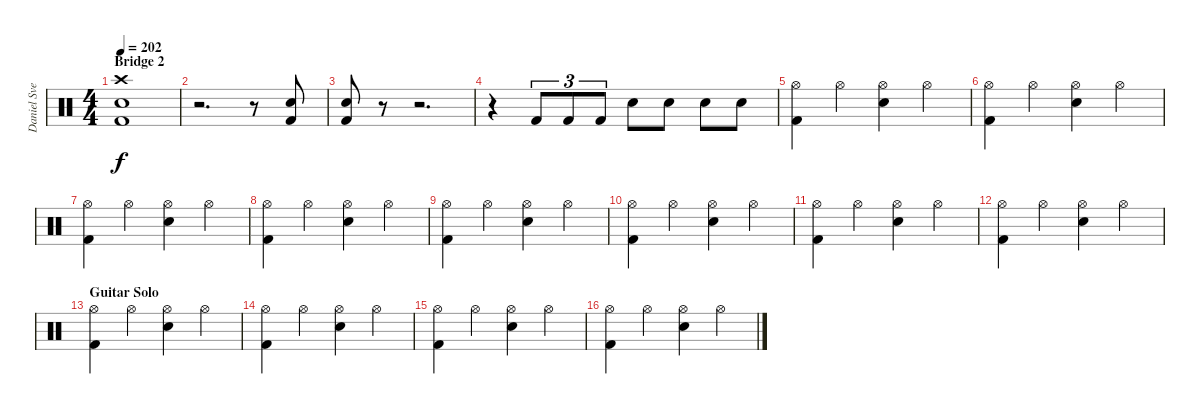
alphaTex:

\track ("Daniel Svensson" "Daniel Sve") {instrument percussion}
\staff {score}
\articulation defaults
\ts (4 4)
\section ("" "Bridge 2")
\tempo 202
\clef neutral
\ks c
("Crash high (hit)" "Electric Snare (hit)" "Kick (hit) 2").1{dy f} |
r.2{d} r.8 ("Electric Snare (hit)" "Kick (hit) 2").8 |
("Electric Snare (hit)" "Kick (hit) 2").8 r.8 r.2{d} |
r.4 "Kick (hit) 2".8{tu (3 2)} "Kick (hit) 2".8{tu (3 2)} "Kick (hit) 2".8{tu (3 2)} "Electric Snare (hit)".8 "Electric Snare (hit)".8 "Electric Snare (hit)".8 "Electric Snare (hit)".8 |
("Hi-Hat (open)" "Kick (hit) 2").4 "Hi-Hat (open)".4 ("Hi-Hat (open)" "Electric Snare (hit)").4 "Hi-Hat (open)".4 |
("Hi-Hat (open)" "Kick (hit) 2").4 "Hi-Hat (open)".4 ("Hi-Hat (open)" "Electric Snare (hit)").4 "Hi-Hat (open)".4 |
("Hi-Hat (open)" "Kick (hit) 2").4 "Hi-Hat (open)".4 ("Hi-Hat (open)" "Electric Snare (hit)").4 "Hi-Hat (open)".4 |
("Hi-Hat (open)" "Kick (hit) 2").4 "Hi-Hat (open)".4 ("Hi-Hat (open)" "Electric Snare (hit)").4 "Hi-Hat (open)".4 |
("Hi-Hat (open)" "Kick (hit) 2").4 "Hi-Hat (open)".4 ("Hi-Hat (open)" "Electric Snare (hit)").4 "Hi-Hat (open)".4 |
("Hi-Hat (open)" "Kick (hit) 2").4 "Hi-Hat (open)".4 ("Hi-Hat (open)" "Electric Snare (hit)").4 "Hi-Hat (open)".4 |
("Hi-Hat (open)" "Kick (hit) 2").4 "Hi-Hat (open)".4 ("Hi-Hat (open)" "Electric Snare (hit)").4 "Hi-Hat (open)".4 |
("Hi-Hat (open)" "Kick (hit) 2").4 "Hi-Hat (open)".4 ("Hi-Hat (open)" "Electric Snare (hit)").4 "Hi-Hat (open)".4 |
\section ("" "Guitar Solo")
("Hi-Hat (open)" "Kick (hit) 2").4 "Hi-Hat (open)".4 ("Hi-Hat (open)" "Electric Snare (hit)").4 "Hi-Hat (open)".4 |
("Hi-Hat (open)" "Kick (hit) 2").4 "Hi-Hat (open)".4 ("Hi-Hat (open)" "Electric Snare (hit)").4 "Hi-Hat (open)".4 |
("Hi-Hat (open)" "Kick (hit) 2").4 "Hi-Hat (open)".4 ("Hi-Hat (open)" "Electric Snare (hit)").4 "Hi-Hat (open)".4 |
("Hi-Hat (open)" "Kick (hit) 2").4 "Hi-Hat (open)".4 ("Hi-Hat (open)" "Electric Snare (hit)").4 "Hi-Hat (open)".4
